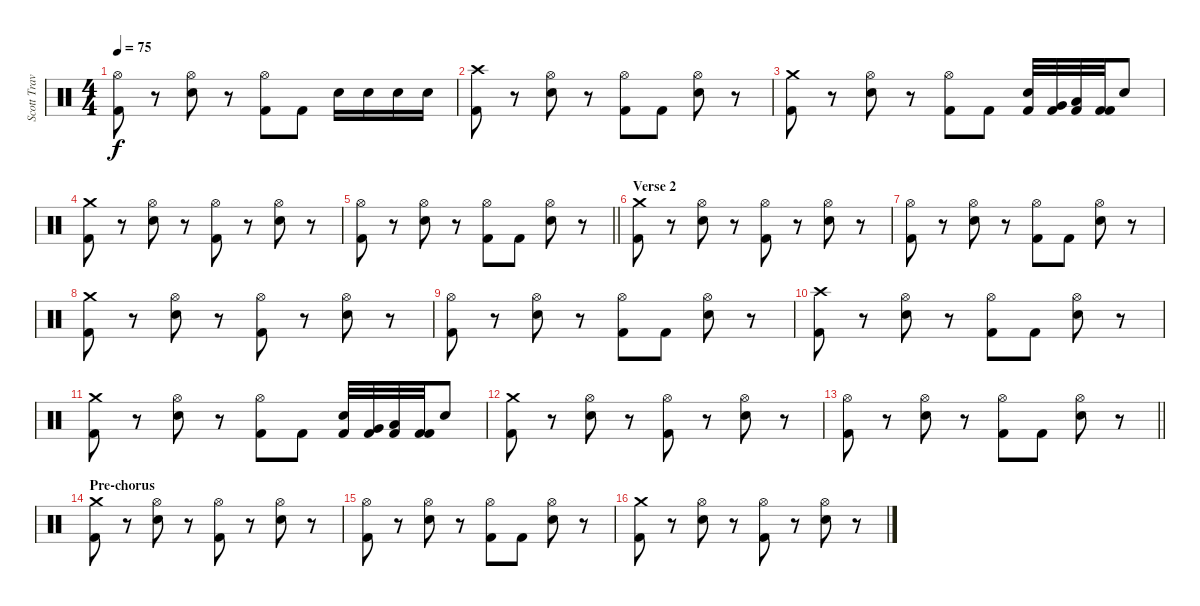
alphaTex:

\track ("Scott Travis" "Scott Trav") {instrument percussion}
\staff {score}
\articulation defaults
\ts (4 4)
\tempo 75
\clef neutral
\ks c
("Hi-Hat (open)" "Kick (hit) 2").8{dy f} r.8 ("Hi-Hat (open)" "Snare (hit) 2").8 r.8 ("Hi-Hat (open)" "Kick (hit) 2").8 "Kick (hit) 2".8 "Snare (hit) 2".16 "Snare (hit) 2".16 "Snare (hit) 2".16 "Snare (hit) 2".16 |
("Crash high (hit)" "Kick (hit) 2").8 r.8 ("Hi-Hat (open)" "Snare (hit) 2").8 r.8 ("Hi-Hat (open)" "Kick (hit) 2").8 "Kick (hit) 2".8 ("Hi-Hat (open)" "Snare (hit) 2").8 r.8 |
("Crash medium (hit)" "Kick (hit) 2").8 r.8 ("Hi-Hat (open)" "Snare (hit) 2").8 r.8 ("Hi-Hat (open)" "Kick (hit) 2").8 "Kick (hit) 2".8 ("Snare (hit) 2" "Kick (hit) 2").32 ("Very Low Tom (hit)" "Kick (hit) 2").32 ("Low Floor Tom (hit)" "Kick (hit) 2").32 ("Kick (hit) 2" "Kick (hit) 2").32 "Snare (hit) 2".8 |
("Crash medium (hit)" "Kick (hit) 2").8 r.8 ("Hi-Hat (open)" "Snare (hit) 2").8 r.8 ("Hi-Hat (open)" "Kick (hit) 2").8 r.8 ("Hi-Hat (open)" "Snare (hit) 2").8 r.8 |
\barLineRight lightlight
("Hi-Hat (open)" "Kick (hit) 2").8 r.8 ("Hi-Hat (open)" "Snare (hit) 2").8 r.8 ("Hi-Hat (open)" "Kick (hit) 2").8 "Kick (hit) 2".8 ("Hi-Hat (open)" "Snare (hit) 2").8 r.8 |
\section ("" "Verse 2")
("Crash medium (hit)" "Kick (hit) 2").8 r.8 ("Hi-Hat (open)" "Snare (hit) 2").8 r.8 ("Hi-Hat (open)" "Kick (hit) 2").8 r.8 ("Hi-Hat (open)" "Snare (hit) 2").8 r.8 |
("Hi-Hat (open)" "Kick (hit) 2").8 r.8 ("Hi-Hat (open)" "Snare (hit) 2").8 r.8 ("Hi-Hat (open)" "Kick (hit) 2").8 "Kick (hit) 2".8 ("Hi-Hat (open)" "Snare (hit) 2").8 r.8 |
("Crash medium (hit)" "Kick (hit) 2").8 r.8 ("Hi-Hat (open)" "Snare (hit) 2").8 r.8 ("Hi-Hat (open)" "Kick (hit) 2").8 r.8 ("Hi-Hat (open)" "Snare (hit) 2").8 r.8 |
("Hi-Hat (open)" "Kick (hit) 2").8 r.8 ("Hi-Hat (open)" "Snare (hit) 2").8 r.8 ("Hi-Hat (open)" "Kick (hit) 2").8 "Kick (hit) 2".8 ("Hi-Hat (open)" "Snare (hit) 2").8 r.8 |
("Crash high (hit)" "Kick (hit) 2").8 r.8 ("Hi-Hat (open)" "Snare (hit) 2").8 r.8 ("Hi-Hat (open)" "Kick (hit) 2").8 "Kick (hit) 2".8 ("Hi-Hat (open)" "Snare (hit) 2").8 r.8 |
("Crash medium (hit)" "Kick (hit) 2").8 r.8 ("Hi-Hat (open)" "Snare (hit) 2").8 r.8 ("Hi-Hat (open)" "Kick (hit) 2").8 "Kick (hit) 2".8 ("Snare (hit) 2" "Kick (hit) 2").32 ("Very Low Tom (hit)" "Kick (hit) 2").32 ("Low Floor Tom (hit)" "Kick (hit) 2").32 ("Kick (hit) 2" "Kick (hit) 2").32 "Snare (hit) 2".8 |
("Crash medium (hit)" "Kick (hit) 2").8 r.8 ("Hi-Hat (open)" "Snare (hit) 2").8 r.8 ("Hi-Hat (open)" "Kick (hit) 2").8 r.8 ("Hi-Hat (open)" "Snare (hit) 2").8 r.8 |
\barLineRight lightlight
("Hi-Hat (open)" "Kick (hit) 2").8 r.8 ("Hi-Hat (open)" "Snare (hit) 2").8 r.8 ("Hi-Hat (open)" "Kick (hit) 2").8 "Kick (hit) 2".8 ("Hi-Hat (open)" "Snare (hit) 2").8 r.8 |
\section ("" "Pre-chorus")
("Crash medium (hit)" "Kick (hit) 2").8 r.8 ("Hi-Hat (open)" "Snare (hit) 2").8 r.8 ("Hi-Hat (open)" "Kick (hit) 2").8 r.8 ("Hi-Hat (open)" "Snare (hit) 2").8 r.8 |
("Hi-Hat (open)" "Kick (hit) 2").8 r.8 ("Hi-Hat (open)" "Snare (hit) 2").8 r.8 ("Hi-Hat (open)" "Kick (hit) 2").8 "Kick (hit) 2".8 ("Hi-Hat (open)" "Snare (hit) 2").8 r.8 |
("Crash medium (hit)" "Kick (hit) 2").8 r.8 ("Hi-Hat (open)" "Snare (hit) 2").8 r.8 ("Hi-Hat (open)" "Kick (hit) 2").8 r.8 ("Hi-Hat (open)" "Snare (hit) 2").8 r.8
